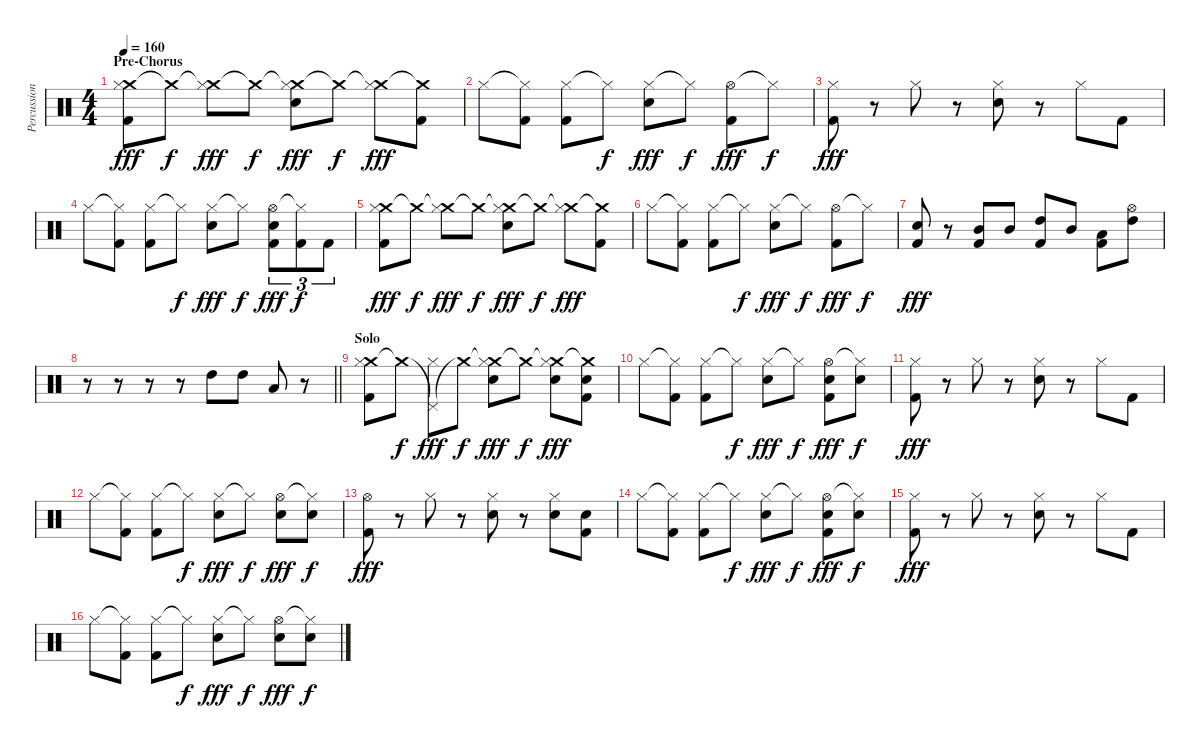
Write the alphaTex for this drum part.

\track ("Percussions" "Percussion") {instrument percussion}
\staff {score}
\articulation defaults
\ts (4 4)
\section ("" "Pre-Chorus")
\tempo 160
\clef neutral
\ks c
("Crash medium (hit)" "Hi-Hat (closed)" "Kick (hit) 2").8{dy fff} "Crash medium (hit)"{t}.8{dy f} ("Crash medium (hit)"{t} "Hi-Hat (closed)").8{dy fff} "Crash medium (hit)"{t}.8{dy f} ("Crash medium (hit)"{t} "Hi-Hat (closed)" "Snare (hit) 2").8{dy fff} "Crash medium (hit)"{t}.8{dy f} ("Crash medium (hit)"{t} "Hi-Hat (closed)").8{dy fff} ("Crash medium (hit)"{t} "Kick (hit) 2").8 |
"Hi-Hat (closed)".8 ("Hi-Hat (closed)"{t} "Kick (hit) 2").8 ("Hi-Hat (closed)" "Kick (hit) 2").8 "Hi-Hat (closed)"{t}.8{dy f} ("Hi-Hat (closed)" "Snare (hit) 2").8{dy fff} "Hi-Hat (closed)"{t}.8{dy f} ("Hi-Hat (open)" "Kick (hit) 2").8{dy fff} "Hi-Hat (closed)"{t}.8{dy f} |
("Hi-Hat (closed)" "Kick (hit) 2").8{dy fff} r.8 "Hi-Hat (closed)".8 r.8 ("Hi-Hat (closed)" "Snare (hit) 2").8 r.8 "Hi-Hat (closed)".8 "Kick (hit) 2".8 |
"Hi-Hat (closed)".8 ("Hi-Hat (closed)"{t} "Kick (hit) 2").8 ("Hi-Hat (closed)" "Kick (hit) 2").8 "Hi-Hat (closed)"{t}.8{dy f} ("Hi-Hat (closed)" "Snare (hit) 2").8{dy fff} "Hi-Hat (closed)"{t}.8{dy f} ("Hi-Hat (open)" "Snare (hit) 2" "Kick (hit) 2").8{tu (3 2) dy fff} ("Hi-Hat (closed)"{t} "Kick (hit) 2").8{tu (3 2) dy f} "Kick (hit) 2".8{tu (3 2)} |
("Crash medium (hit)" "Hi-Hat (closed)" "Kick (hit) 2").8{dy fff} "Crash medium (hit)"{t}.8{dy f} ("Crash medium (hit)"{t} "Hi-Hat (closed)").8{dy fff} "Crash medium (hit)"{t}.8{dy f} ("Crash medium (hit)"{t} "Hi-Hat (closed)" "Snare (hit) 2").8{dy fff} "Crash medium (hit)"{t}.8{dy f} ("Crash medium (hit)"{t} "Hi-Hat (closed)").8{dy fff} ("Crash medium (hit)"{t} "Kick (hit) 2").8 |
"Hi-Hat (closed)".8 ("Hi-Hat (closed)"{t} "Kick (hit) 2").8 ("Hi-Hat (closed)" "Kick (hit) 2").8 "Hi-Hat (closed)"{t}.8{dy f} ("Hi-Hat (closed)" "Snare (hit) 2").8{dy fff} "Hi-Hat (closed)"{t}.8{dy f} ("Hi-Hat (open)" "Kick (hit) 2").8{dy fff} "Hi-Hat (closed)"{t}.8{dy f} |
("Snare (hit) 2" "Kick (hit) 2").8{dy fff} r.8 ("Mid Tom (hit)" "Kick (hit) 2").8 "Mid Tom (hit)".8 ("High Tom (hit)" "Kick (hit) 2").8 "Mid Tom (hit)".8 ("Low Tom (hit)" "Kick (hit) 2").8 ("Hi-Hat (open)" "High Tom (hit)").8 |
\barLineRight lightlight
r.8 r.8 r.8 r.8 "High Tom (hit)".8 "High Tom (hit)".8 "Low Tom (hit)".8 r.8 |
\section ("" "Solo")
("Crash medium (hit)" "Hi-Hat (closed)" "Kick (hit) 2").8 "Crash medium (hit)"{t}.8{dy f} ("Pedal Hi-Hat (hit)"{t} "Hi-Hat (closed)").8{dy fff} "Crash medium (hit)"{t}.8{dy f} ("Crash medium (hit)"{t} "Hi-Hat (closed)" "Snare (hit) 2").8{dy fff} "Crash medium (hit)"{t}.8{dy f} ("Crash medium (hit)"{t} "Hi-Hat (closed)" "Snare (hit) 2").8{dy fff} ("Crash medium (hit)"{t} "Snare (hit) 2" "Kick (hit) 2").8 |
"Hi-Hat (closed)".8 ("Hi-Hat (closed)"{t} "Kick (hit) 2").8 ("Hi-Hat (closed)" "Kick (hit) 2").8 "Hi-Hat (closed)"{t}.8{dy f} ("Hi-Hat (closed)" "Snare (hit) 2").8{dy fff} "Hi-Hat (closed)"{t}.8{dy f} ("Hi-Hat (open)" "Snare (hit) 2" "Kick (hit) 2").8{dy fff} ("Hi-Hat (closed)"{t} "Snare (hit) 2").8{dy f} |
("Hi-Hat (closed)" "Kick (hit) 2").8{dy fff} r.8 "Hi-Hat (closed)".8 r.8 ("Hi-Hat (closed)" "Snare (hit) 2").8 r.8 "Hi-Hat (closed)".8 "Kick (hit) 2".8 |
"Hi-Hat (closed)".8 ("Hi-Hat (closed)"{t} "Kick (hit) 2").8 ("Hi-Hat (closed)" "Kick (hit) 2").8 "Hi-Hat (closed)"{t}.8{dy f} ("Hi-Hat (closed)" "Snare (hit) 2").8{dy fff} "Hi-Hat (closed)"{t}.8{dy f} ("Hi-Hat (open)" "Snare (hit) 2").8{dy fff} ("Hi-Hat (closed)"{t} "Snare (hit) 2").8{dy f} |
("Hi-Hat (open)" "Kick (hit) 2").8{dy fff} r.8 "Hi-Hat (closed)".8 r.8 ("Hi-Hat (closed)" "Snare (hit) 2").8 r.8 ("Hi-Hat (closed)" "Snare (hit) 2").8 ("Snare (hit) 2" "Kick (hit) 2").8 |
"Hi-Hat (closed)".8 ("Hi-Hat (closed)"{t} "Kick (hit) 2").8 ("Hi-Hat (closed)" "Kick (hit) 2").8 "Hi-Hat (closed)"{t}.8{dy f} ("Hi-Hat (closed)" "Snare (hit) 2").8{dy fff} "Hi-Hat (closed)"{t}.8{dy f} ("Hi-Hat (open)" "Snare (hit) 2" "Kick (hit) 2").8{dy fff} ("Hi-Hat (closed)"{t} "Snare (hit) 2").8{dy f} |
("Hi-Hat (closed)" "Kick (hit) 2").8{dy fff} r.8 "Hi-Hat (closed)".8 r.8 ("Hi-Hat (closed)" "Snare (hit) 2").8 r.8 "Hi-Hat (closed)".8 "Kick (hit) 2".8 |
"Hi-Hat (closed)".8 ("Hi-Hat (closed)"{t} "Kick (hit) 2").8 ("Hi-Hat (closed)" "Kick (hit) 2").8 "Hi-Hat (closed)"{t}.8{dy f} ("Hi-Hat (closed)" "Snare (hit) 2").8{dy fff} "Hi-Hat (closed)"{t}.8{dy f} ("Hi-Hat (open)" "Snare (hit) 2").8{dy fff} ("Hi-Hat (closed)"{t} "Snare (hit) 2").8{dy f}
